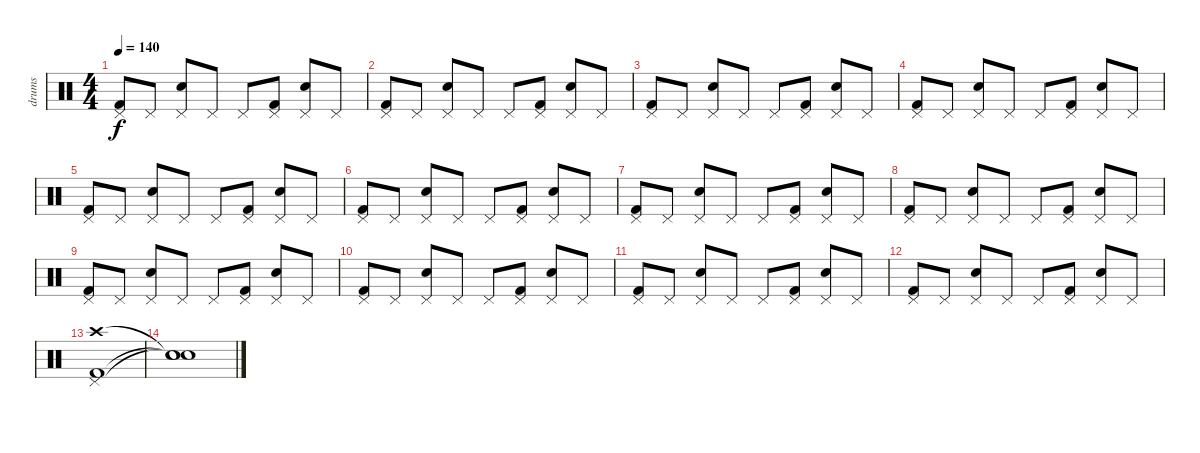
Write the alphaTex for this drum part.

\track ("drums" "drums") {instrument percussion}
\staff {score}
\articulation defaults
\ts (4 4)
\tempo 140
\clef neutral
\ks c
("Kick (hit) 2" "Pedal Hi-Hat (hit)").8{dy f} "Pedal Hi-Hat (hit)".8 ("Snare (hit) 2" "Pedal Hi-Hat (hit)").8 "Pedal Hi-Hat (hit)".8 "Pedal Hi-Hat (hit)".8 ("Kick (hit) 2" "Pedal Hi-Hat (hit)").8 ("Snare (hit) 2" "Pedal Hi-Hat (hit)").8 "Pedal Hi-Hat (hit)".8 |
("Kick (hit) 2" "Pedal Hi-Hat (hit)").8 "Pedal Hi-Hat (hit)".8 ("Snare (hit) 2" "Pedal Hi-Hat (hit)").8 "Pedal Hi-Hat (hit)".8 "Pedal Hi-Hat (hit)".8 ("Kick (hit) 2" "Pedal Hi-Hat (hit)").8 ("Snare (hit) 2" "Pedal Hi-Hat (hit)").8 "Pedal Hi-Hat (hit)".8 |
("Kick (hit) 2" "Pedal Hi-Hat (hit)").8 "Pedal Hi-Hat (hit)".8 ("Snare (hit) 2" "Pedal Hi-Hat (hit)").8 "Pedal Hi-Hat (hit)".8 "Pedal Hi-Hat (hit)".8 ("Kick (hit) 2" "Pedal Hi-Hat (hit)").8 ("Snare (hit) 2" "Pedal Hi-Hat (hit)").8 "Pedal Hi-Hat (hit)".8 |
("Kick (hit) 2" "Pedal Hi-Hat (hit)").8 "Pedal Hi-Hat (hit)".8 ("Snare (hit) 2" "Pedal Hi-Hat (hit)").8 "Pedal Hi-Hat (hit)".8 "Pedal Hi-Hat (hit)".8 ("Kick (hit) 2" "Pedal Hi-Hat (hit)").8 ("Snare (hit) 2" "Pedal Hi-Hat (hit)").8 "Pedal Hi-Hat (hit)".8 |
("Kick (hit) 2" "Pedal Hi-Hat (hit)").8 "Pedal Hi-Hat (hit)".8 ("Snare (hit) 2" "Pedal Hi-Hat (hit)").8 "Pedal Hi-Hat (hit)".8 "Pedal Hi-Hat (hit)".8 ("Kick (hit) 2" "Pedal Hi-Hat (hit)").8 ("Snare (hit) 2" "Pedal Hi-Hat (hit)").8 "Pedal Hi-Hat (hit)".8 |
("Kick (hit) 2" "Pedal Hi-Hat (hit)").8 "Pedal Hi-Hat (hit)".8 ("Snare (hit) 2" "Pedal Hi-Hat (hit)").8 "Pedal Hi-Hat (hit)".8 "Pedal Hi-Hat (hit)".8 ("Kick (hit) 2" "Pedal Hi-Hat (hit)").8 ("Snare (hit) 2" "Pedal Hi-Hat (hit)").8 "Pedal Hi-Hat (hit)".8 |
("Kick (hit) 2" "Pedal Hi-Hat (hit)").8 "Pedal Hi-Hat (hit)".8 ("Snare (hit) 2" "Pedal Hi-Hat (hit)").8 "Pedal Hi-Hat (hit)".8 "Pedal Hi-Hat (hit)".8 ("Kick (hit) 2" "Pedal Hi-Hat (hit)").8 ("Snare (hit) 2" "Pedal Hi-Hat (hit)").8 "Pedal Hi-Hat (hit)".8 |
("Kick (hit) 2" "Pedal Hi-Hat (hit)").8 "Pedal Hi-Hat (hit)".8 ("Snare (hit) 2" "Pedal Hi-Hat (hit)").8 "Pedal Hi-Hat (hit)".8 "Pedal Hi-Hat (hit)".8 ("Kick (hit) 2" "Pedal Hi-Hat (hit)").8 ("Snare (hit) 2" "Pedal Hi-Hat (hit)").8 "Pedal Hi-Hat (hit)".8 |
("Kick (hit) 2" "Pedal Hi-Hat (hit)").8 "Pedal Hi-Hat (hit)".8 ("Snare (hit) 2" "Pedal Hi-Hat (hit)").8 "Pedal Hi-Hat (hit)".8 "Pedal Hi-Hat (hit)".8 ("Kick (hit) 2" "Pedal Hi-Hat (hit)").8 ("Snare (hit) 2" "Pedal Hi-Hat (hit)").8 "Pedal Hi-Hat (hit)".8 |
("Kick (hit) 2" "Pedal Hi-Hat (hit)").8 "Pedal Hi-Hat (hit)".8 ("Snare (hit) 2" "Pedal Hi-Hat (hit)").8 "Pedal Hi-Hat (hit)".8 "Pedal Hi-Hat (hit)".8 ("Kick (hit) 2" "Pedal Hi-Hat (hit)").8 ("Snare (hit) 2" "Pedal Hi-Hat (hit)").8 "Pedal Hi-Hat (hit)".8 |
("Kick (hit) 2" "Pedal Hi-Hat (hit)").8 "Pedal Hi-Hat (hit)".8 ("Snare (hit) 2" "Pedal Hi-Hat (hit)").8 "Pedal Hi-Hat (hit)".8 "Pedal Hi-Hat (hit)".8 ("Kick (hit) 2" "Pedal Hi-Hat (hit)").8 ("Snare (hit) 2" "Pedal Hi-Hat (hit)").8 "Pedal Hi-Hat (hit)".8 |
("Kick (hit) 2" "Pedal Hi-Hat (hit)").8 "Pedal Hi-Hat (hit)".8 ("Snare (hit) 2" "Pedal Hi-Hat (hit)").8 "Pedal Hi-Hat (hit)".8 "Pedal Hi-Hat (hit)".8 ("Kick (hit) 2" "Pedal Hi-Hat (hit)").8 ("Snare (hit) 2" "Pedal Hi-Hat (hit)").8 "Pedal Hi-Hat (hit)".8 |
("Kick (hit) 2" "Pedal Hi-Hat (hit)" "Crash high (hit)").1 |
("Snare (hit)"{t} "Snare (hit)"{t} "Snare (hit)"{t}).1
